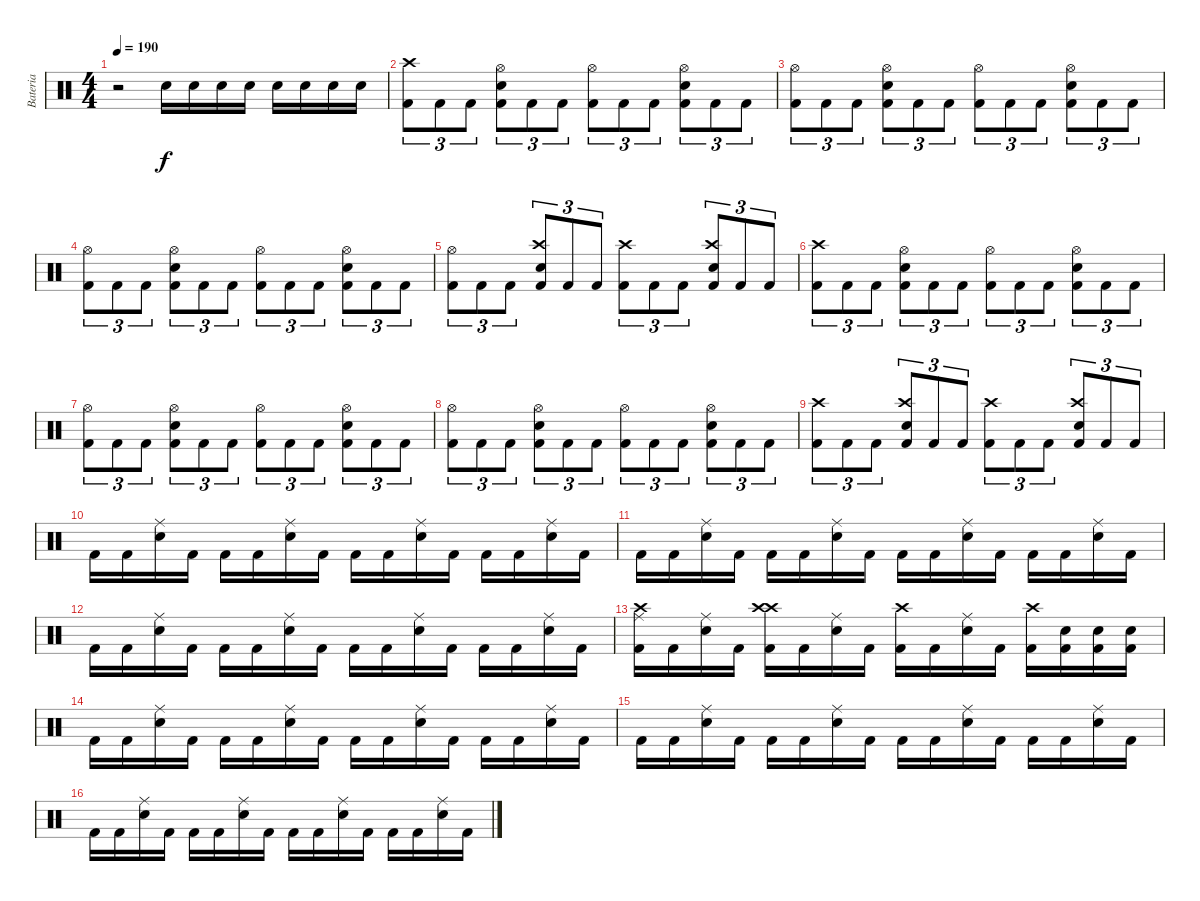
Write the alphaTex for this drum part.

\track ("Bateria" "Bateria") {instrument percussion}
\staff {score}
\articulation defaults
\ts (4 4)
\tempo 190
\clef neutral
\ks c
r.2{dy f} "Electric Snare (hit)".16 "Electric Snare (hit)".16 "Electric Snare (hit)".16 "Electric Snare (hit)".16 "Electric Snare (hit)".16 "Electric Snare (hit)".16 "Electric Snare (hit)".16 "Electric Snare (hit)".16 |
("Crash high (hit)" "Kick (hit) 2").8{tu (3 2)} "Kick (hit) 2".8{tu (3 2)} "Kick (hit) 2".8{tu (3 2)} ("Hi-Hat (open)" "Electric Snare (hit)" "Kick (hit) 2").8{tu (3 2)} "Kick (hit) 2".8{tu (3 2)} "Kick (hit) 2".8{tu (3 2)} ("Hi-Hat (open)" "Kick (hit) 2").8{tu (3 2)} "Kick (hit) 2".8{tu (3 2)} "Kick (hit) 2".8{tu (3 2)} ("Hi-Hat (open)" "Electric Snare (hit)" "Kick (hit) 2").8{tu (3 2)} "Kick (hit) 2".8{tu (3 2)} "Kick (hit) 2".8{tu (3 2)} |
("Hi-Hat (open)" "Kick (hit) 2").8{tu (3 2)} "Kick (hit) 2".8{tu (3 2)} "Kick (hit) 2".8{tu (3 2)} ("Hi-Hat (open)" "Electric Snare (hit)" "Kick (hit) 2").8{tu (3 2)} "Kick (hit) 2".8{tu (3 2)} "Kick (hit) 2".8{tu (3 2)} ("Hi-Hat (open)" "Kick (hit) 2").8{tu (3 2)} "Kick (hit) 2".8{tu (3 2)} "Kick (hit) 2".8{tu (3 2)} ("Hi-Hat (open)" "Electric Snare (hit)" "Kick (hit) 2").8{tu (3 2)} "Kick (hit) 2".8{tu (3 2)} "Kick (hit) 2".8{tu (3 2)} |
("Hi-Hat (open)" "Kick (hit) 2").8{tu (3 2)} "Kick (hit) 2".8{tu (3 2)} "Kick (hit) 2".8{tu (3 2)} ("Hi-Hat (open)" "Electric Snare (hit)" "Kick (hit) 2").8{tu (3 2)} "Kick (hit) 2".8{tu (3 2)} "Kick (hit) 2".8{tu (3 2)} ("Hi-Hat (open)" "Kick (hit) 2").8{tu (3 2)} "Kick (hit) 2".8{tu (3 2)} "Kick (hit) 2".8{tu (3 2)} ("Hi-Hat (open)" "Electric Snare (hit)" "Kick (hit) 2").8{tu (3 2)} "Kick (hit) 2".8{tu (3 2)} "Kick (hit) 2".8{tu (3 2)} |
("Hi-Hat (open)" "Kick (hit) 2").8{tu (3 2)} "Kick (hit) 2".8{tu (3 2)} "Kick (hit) 2".8{tu (3 2)} ("Crash high (hit)" "Electric Snare (hit)" "Kick (hit) 2").8{tu (3 2)} "Kick (hit) 2".8{tu (3 2)} "Kick (hit) 2".8{tu (3 2)} ("Crash high (hit)" "Kick (hit) 2").8{tu (3 2)} "Kick (hit) 2".8{tu (3 2)} "Kick (hit) 2".8{tu (3 2)} ("Crash high (hit)" "Electric Snare (hit)" "Kick (hit) 2").8{tu (3 2)} "Kick (hit) 2".8{tu (3 2)} "Kick (hit) 2".8{tu (3 2)} |
("Crash high (hit)" "Kick (hit) 2").8{tu (3 2)} "Kick (hit) 2".8{tu (3 2)} "Kick (hit) 2".8{tu (3 2)} ("Hi-Hat (open)" "Electric Snare (hit)" "Kick (hit) 2").8{tu (3 2)} "Kick (hit) 2".8{tu (3 2)} "Kick (hit) 2".8{tu (3 2)} ("Hi-Hat (open)" "Kick (hit) 2").8{tu (3 2)} "Kick (hit) 2".8{tu (3 2)} "Kick (hit) 2".8{tu (3 2)} ("Hi-Hat (open)" "Electric Snare (hit)" "Kick (hit) 2").8{tu (3 2)} "Kick (hit) 2".8{tu (3 2)} "Kick (hit) 2".8{tu (3 2)} |
("Hi-Hat (open)" "Kick (hit) 2").8{tu (3 2)} "Kick (hit) 2".8{tu (3 2)} "Kick (hit) 2".8{tu (3 2)} ("Hi-Hat (open)" "Electric Snare (hit)" "Kick (hit) 2").8{tu (3 2)} "Kick (hit) 2".8{tu (3 2)} "Kick (hit) 2".8{tu (3 2)} ("Hi-Hat (open)" "Kick (hit) 2").8{tu (3 2)} "Kick (hit) 2".8{tu (3 2)} "Kick (hit) 2".8{tu (3 2)} ("Hi-Hat (open)" "Electric Snare (hit)" "Kick (hit) 2").8{tu (3 2)} "Kick (hit) 2".8{tu (3 2)} "Kick (hit) 2".8{tu (3 2)} |
("Hi-Hat (open)" "Kick (hit) 2").8{tu (3 2)} "Kick (hit) 2".8{tu (3 2)} "Kick (hit) 2".8{tu (3 2)} ("Hi-Hat (open)" "Electric Snare (hit)" "Kick (hit) 2").8{tu (3 2)} "Kick (hit) 2".8{tu (3 2)} "Kick (hit) 2".8{tu (3 2)} ("Hi-Hat (open)" "Kick (hit) 2").8{tu (3 2)} "Kick (hit) 2".8{tu (3 2)} "Kick (hit) 2".8{tu (3 2)} ("Hi-Hat (open)" "Electric Snare (hit)" "Kick (hit) 2").8{tu (3 2)} "Kick (hit) 2".8{tu (3 2)} "Kick (hit) 2".8{tu (3 2)} |
("Crash high (hit)" "Kick (hit) 2").8{tu (3 2)} "Kick (hit) 2".8{tu (3 2)} "Kick (hit) 2".8{tu (3 2)} ("Crash high (hit)" "Electric Snare (hit)" "Kick (hit) 2").8{tu (3 2)} "Kick (hit) 2".8{tu (3 2)} "Kick (hit) 2".8{tu (3 2)} ("Crash high (hit)" "Kick (hit) 2").8{tu (3 2)} "Kick (hit) 2".8{tu (3 2)} "Kick (hit) 2".8{tu (3 2)} ("Crash high (hit)" "Electric Snare (hit)" "Kick (hit) 2").8{tu (3 2)} "Kick (hit) 2".8{tu (3 2)} "Kick (hit) 2".8{tu (3 2)} |
"Kick (hit) 2".16 "Kick (hit) 2".16 ("Ride (middle)" "Electric Snare (hit)").16 "Kick (hit) 2".16 "Kick (hit) 2".16 "Kick (hit) 2".16 ("Ride (middle)" "Electric Snare (hit)").16 "Kick (hit) 2".16 "Kick (hit) 2".16 "Kick (hit) 2".16 ("Ride (middle)" "Electric Snare (hit)").16 "Kick (hit) 2".16 "Kick (hit) 2".16 "Kick (hit) 2".16 ("Ride (middle)" "Electric Snare (hit)").16 "Kick (hit) 2".16 |
"Kick (hit) 2".16 "Kick (hit) 2".16 ("Ride (middle)" "Electric Snare (hit)").16 "Kick (hit) 2".16 "Kick (hit) 2".16 "Kick (hit) 2".16 ("Ride (middle)" "Electric Snare (hit)").16 "Kick (hit) 2".16 "Kick (hit) 2".16 "Kick (hit) 2".16 ("Ride (middle)" "Electric Snare (hit)").16 "Kick (hit) 2".16 "Kick (hit) 2".16 "Kick (hit) 2".16 ("Ride (middle)" "Electric Snare (hit)").16 "Kick (hit) 2".16 |
"Kick (hit) 2".16 "Kick (hit) 2".16 ("Ride (middle)" "Electric Snare (hit)").16 "Kick (hit) 2".16 "Kick (hit) 2".16 "Kick (hit) 2".16 ("Ride (middle)" "Electric Snare (hit)").16 "Kick (hit) 2".16 "Kick (hit) 2".16 "Kick (hit) 2".16 ("Ride (middle)" "Electric Snare (hit)").16 "Kick (hit) 2".16 "Kick (hit) 2".16 "Kick (hit) 2".16 ("Ride (middle)" "Electric Snare (hit)").16 "Kick (hit) 2".16 |
("Crash high (hit)" "Ride (middle)" "Kick (hit) 2").16 "Kick (hit) 2".16 ("Ride (middle)" "Electric Snare (hit)").16 "Kick (hit) 2".16 ("Crash high (hit)" "Crash high (hit)" "Kick (hit) 2").16 "Kick (hit) 2".16 ("Ride (middle)" "Electric Snare (hit)").16 "Kick (hit) 2".16 ("Crash high (hit)" "Kick (hit) 2").16 "Kick (hit) 2".16 ("Ride (middle)" "Electric Snare (hit)").16 "Kick (hit) 2".16 ("Crash high (hit)" "Kick (hit) 2").16 ("Electric Snare (hit)" "Kick (hit) 2").16 ("Electric Snare (hit)" "Kick (hit) 2").16 ("Electric Snare (hit)" "Kick (hit) 2").16 |
"Kick (hit) 2".16 "Kick (hit) 2".16 ("Ride (middle)" "Electric Snare (hit)").16 "Kick (hit) 2".16 "Kick (hit) 2".16 "Kick (hit) 2".16 ("Ride (middle)" "Electric Snare (hit)").16 "Kick (hit) 2".16 "Kick (hit) 2".16 "Kick (hit) 2".16 ("Ride (middle)" "Electric Snare (hit)").16 "Kick (hit) 2".16 "Kick (hit) 2".16 "Kick (hit) 2".16 ("Ride (middle)" "Electric Snare (hit)").16 "Kick (hit) 2".16 |
"Kick (hit) 2".16 "Kick (hit) 2".16 ("Ride (middle)" "Electric Snare (hit)").16 "Kick (hit) 2".16 "Kick (hit) 2".16 "Kick (hit) 2".16 ("Ride (middle)" "Electric Snare (hit)").16 "Kick (hit) 2".16 "Kick (hit) 2".16 "Kick (hit) 2".16 ("Ride (middle)" "Electric Snare (hit)").16 "Kick (hit) 2".16 "Kick (hit) 2".16 "Kick (hit) 2".16 ("Ride (middle)" "Electric Snare (hit)").16 "Kick (hit) 2".16 |
"Kick (hit) 2".16 "Kick (hit) 2".16 ("Ride (middle)" "Electric Snare (hit)").16 "Kick (hit) 2".16 "Kick (hit) 2".16 "Kick (hit) 2".16 ("Ride (middle)" "Electric Snare (hit)").16 "Kick (hit) 2".16 "Kick (hit) 2".16 "Kick (hit) 2".16 ("Ride (middle)" "Electric Snare (hit)").16 "Kick (hit) 2".16 "Kick (hit) 2".16 "Kick (hit) 2".16 ("Ride (middle)" "Electric Snare (hit)").16 "Kick (hit) 2".16
